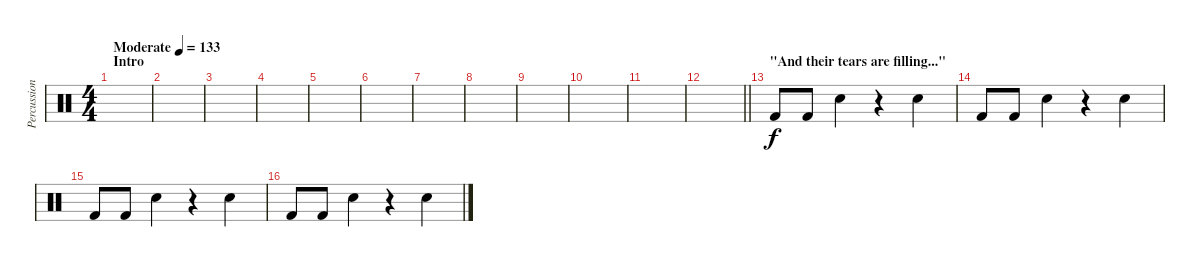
\track ("Percussion" "Percussion") {instrument percussion}
\staff {score}
\articulation defaults
\ts (4 4)
\section ("" "Intro")
\tempo (133 "Moderate")
\clef neutral
\ks c
|
|
|
|
|
|
|
|
|
|
|
\barLineRight lightlight
|
\section ("" "\"And their tears are filling...\"")
"Kick (hit) 2".8 "Kick (hit) 2".8 "Electric Snare (hit)".4 r.4 "Electric Snare (hit)".4 |
"Kick (hit) 2".8 "Kick (hit) 2".8 "Electric Snare (hit)".4 r.4 "Electric Snare (hit)".4 |
"Kick (hit) 2".8 "Kick (hit) 2".8 "Electric Snare (hit)".4 r.4 "Electric Snare (hit)".4 |
"Kick (hit) 2".8 "Kick (hit) 2".8 "Electric Snare (hit)".4 r.4 "Electric Snare (hit)".4
